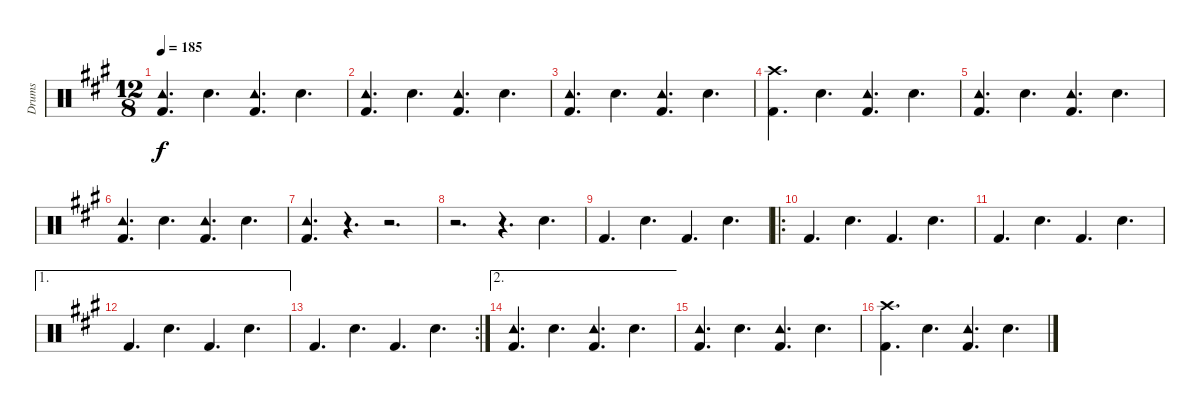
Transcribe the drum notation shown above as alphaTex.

\track ("Drums" "Drums") {instrument percussion}
\staff {score}
\articulation defaults
\ts (12 8)
\tempo 185
\clef neutral
\ks a
("Tambourine (hit)" "Kick (hit) 2").4{d dy f} "Snare (hit) 2".4{d} ("Tambourine (hit)" "Kick (hit) 2").4{d} "Snare (hit) 2".4{d} |
("Tambourine (hit)" "Kick (hit) 2").4{d} "Snare (hit) 2".4{d} ("Tambourine (hit)" "Kick (hit) 2").4{d} "Snare (hit) 2".4{d} |
("Tambourine (hit)" "Kick (hit) 2").4{d} "Snare (hit) 2".4{d} ("Tambourine (hit)" "Kick (hit) 2").4{d} "Snare (hit) 2".4{d} |
("Crash high (hit)" "Kick (hit) 2").4{d} "Snare (hit) 2".4{d} ("Tambourine (hit)" "Kick (hit) 2").4{d} "Snare (hit) 2".4{d} |
("Tambourine (hit)" "Kick (hit) 2").4{d} "Snare (hit) 2".4{d} ("Tambourine (hit)" "Kick (hit) 2").4{d} "Snare (hit) 2".4{d} |
("Tambourine (hit)" "Kick (hit) 2").4{d} "Snare (hit) 2".4{d} ("Tambourine (hit)" "Kick (hit) 2").4{d} "Snare (hit) 2".4{d} |
("Tambourine (hit)" "Kick (hit) 2").4{d} r.4{d} r.2{d} |
r.2{d} r.4{d} "Snare (hit) 2".4{d} |
"Kick (hit) 2".4{d} "Snare (hit) 2".4{d} "Kick (hit) 2".4{d} "Snare (hit) 2".4{d} |
\ro "Kick (hit) 2".4{d} "Snare (hit) 2".4{d} "Kick (hit) 2".4{d} "Snare (hit) 2".4{d}
|
"Kick (hit) 2".4{d} "Snare (hit) 2".4{d} "Kick (hit) 2".4{d} "Snare (hit) 2".4{d} |
\ae 1 "Kick (hit) 2".4{d} "Snare (hit) 2".4{d} "Kick (hit) 2".4{d} "Snare (hit) 2".4{d}
|
\rc 2 "Kick (hit) 2".4{d} "Snare (hit) 2".4{d} "Kick (hit) 2".4{d} "Snare (hit) 2".4{d}
|
\ae 2
("Tambourine (hit)" "Kick (hit) 2").4{d} "Snare (hit) 2".4{d} ("Tambourine (hit)" "Kick (hit) 2").4{d} "Snare (hit) 2".4{d} |
("Tambourine (hit)" "Kick (hit) 2").4{d} "Snare (hit) 2".4{d} ("Tambourine (hit)" "Kick (hit) 2").4{d} "Snare (hit) 2".4{d} |
("Crash high (hit)" "Kick (hit) 2").4{d} "Snare (hit) 2".4{d} ("Tambourine (hit)" "Kick (hit) 2").4{d} "Snare (hit) 2".4{d}
